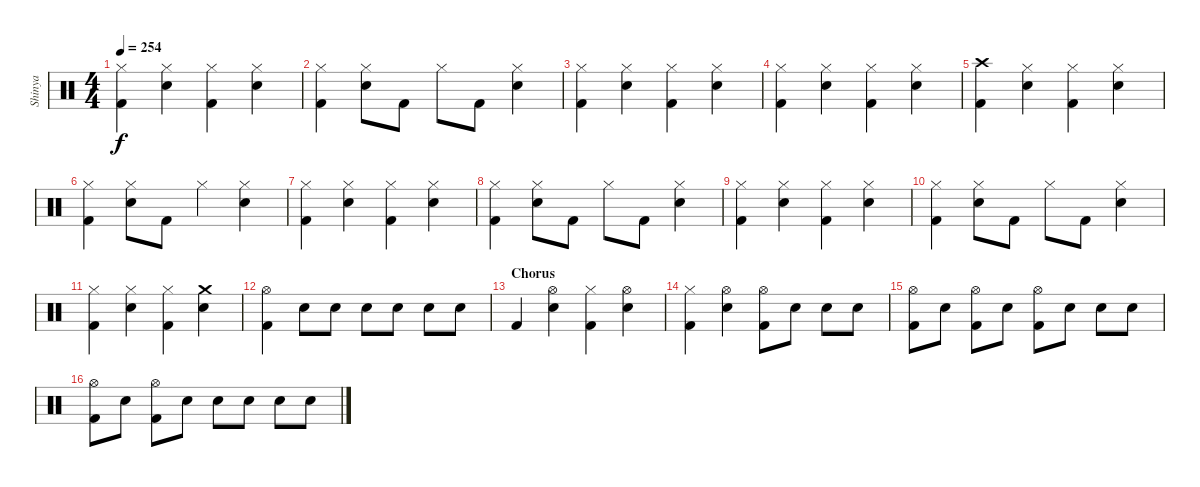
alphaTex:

\track ("Shinya" "Shinya") {instrument percussion}
\staff {score}
\articulation defaults
\ts (4 4)
\tempo 254
\clef neutral
\ks c
("Hi-Hat (closed)" "Kick (hit) 2").4{dy f} ("Electric Snare (hit)" "Hi-Hat (closed)").4 ("Hi-Hat (closed)" "Kick (hit) 2").4 ("Electric Snare (hit)" "Hi-Hat (closed)").4 |
("Hi-Hat (closed)" "Kick (hit) 2").4 ("Electric Snare (hit)" "Hi-Hat (closed)").8 "Kick (hit) 2".8 "Hi-Hat (closed)".8 "Kick (hit) 2".8 ("Electric Snare (hit)" "Hi-Hat (closed)").4 |
("Hi-Hat (closed)" "Kick (hit) 2").4 ("Electric Snare (hit)" "Hi-Hat (closed)").4 ("Hi-Hat (closed)" "Kick (hit) 2").4 ("Electric Snare (hit)" "Hi-Hat (closed)").4 |
("Hi-Hat (closed)" "Kick (hit) 2").4 ("Electric Snare (hit)" "Hi-Hat (closed)").4 ("Hi-Hat (closed)" "Kick (hit) 2").4 ("Electric Snare (hit)" "Hi-Hat (closed)").4 |
("Kick (hit) 2" "Crash high (hit)").4 ("Electric Snare (hit)" "Hi-Hat (closed)").4 ("Hi-Hat (closed)" "Kick (hit) 2").4 ("Electric Snare (hit)" "Hi-Hat (closed)").4 |
("Hi-Hat (closed)" "Kick (hit) 2").4 ("Hi-Hat (closed)" "Electric Snare (hit)").8 "Kick (hit) 2".8 "Hi-Hat (closed)".4 ("Electric Snare (hit)" "Hi-Hat (closed)").4 |
("Hi-Hat (closed)" "Kick (hit) 2").4 ("Electric Snare (hit)" "Hi-Hat (closed)").4 ("Hi-Hat (closed)" "Kick (hit) 2").4 ("Electric Snare (hit)" "Hi-Hat (closed)").4 |
("Hi-Hat (closed)" "Kick (hit) 2").4 ("Electric Snare (hit)" "Hi-Hat (closed)").8 "Kick (hit) 2".8 "Hi-Hat (closed)".8 "Kick (hit) 2".8 ("Electric Snare (hit)" "Hi-Hat (closed)").4 |
("Hi-Hat (closed)" "Kick (hit) 2").4 ("Electric Snare (hit)" "Hi-Hat (closed)").4 ("Hi-Hat (closed)" "Kick (hit) 2").4 ("Electric Snare (hit)" "Hi-Hat (closed)").4 |
("Hi-Hat (closed)" "Kick (hit) 2").4 ("Electric Snare (hit)" "Hi-Hat (closed)").8 "Kick (hit) 2".8 "Hi-Hat (closed)".8 "Kick (hit) 2".8 ("Electric Snare (hit)" "Hi-Hat (closed)").4 |
("Hi-Hat (closed)" "Kick (hit) 2").4 ("Electric Snare (hit)" "Hi-Hat (closed)").4 ("Hi-Hat (closed)" "Kick (hit) 2").4 ("Crash medium (hit)" "Electric Snare (hit)").4 |
("Kick (hit) 2" "Hi-Hat (open)").4 "Electric Snare (hit)".8 "Electric Snare (hit)".8 "Electric Snare (hit)".8 "Electric Snare (hit)".8 "Electric Snare (hit)".8 "Electric Snare (hit)".8 |
\section ("" "Chorus")
"Kick (hit) 2".4 ("Hi-Hat (open)" "Electric Snare (hit)").4 ("Kick (hit) 2" "Hi-Hat (closed)").4 ("Hi-Hat (open)" "Electric Snare (hit)").4 |
("Kick (hit) 2" "Hi-Hat (closed)").4 ("Electric Snare (hit)" "Hi-Hat (open)").4 ("Kick (hit) 2" "Hi-Hat (open)").8 "Electric Snare (hit)".8 "Electric Snare (hit)".8 "Electric Snare (hit)".8 |
("Kick (hit) 2" "Hi-Hat (open)").8 "Electric Snare (hit)".8 ("Kick (hit) 2" "Hi-Hat (open)").8 "Electric Snare (hit)".8 ("Kick (hit) 2" "Hi-Hat (open)").8 "Electric Snare (hit)".8 "Electric Snare (hit)".8 "Electric Snare (hit)".8 |
("Kick (hit) 2" "Hi-Hat (open)").8 "Electric Snare (hit)".8 ("Kick (hit) 2" "Hi-Hat (open)").8 "Electric Snare (hit)".8 "Electric Snare (hit)".8 "Electric Snare (hit)".8 "Electric Snare (hit)".8 "Electric Snare (hit)".8
